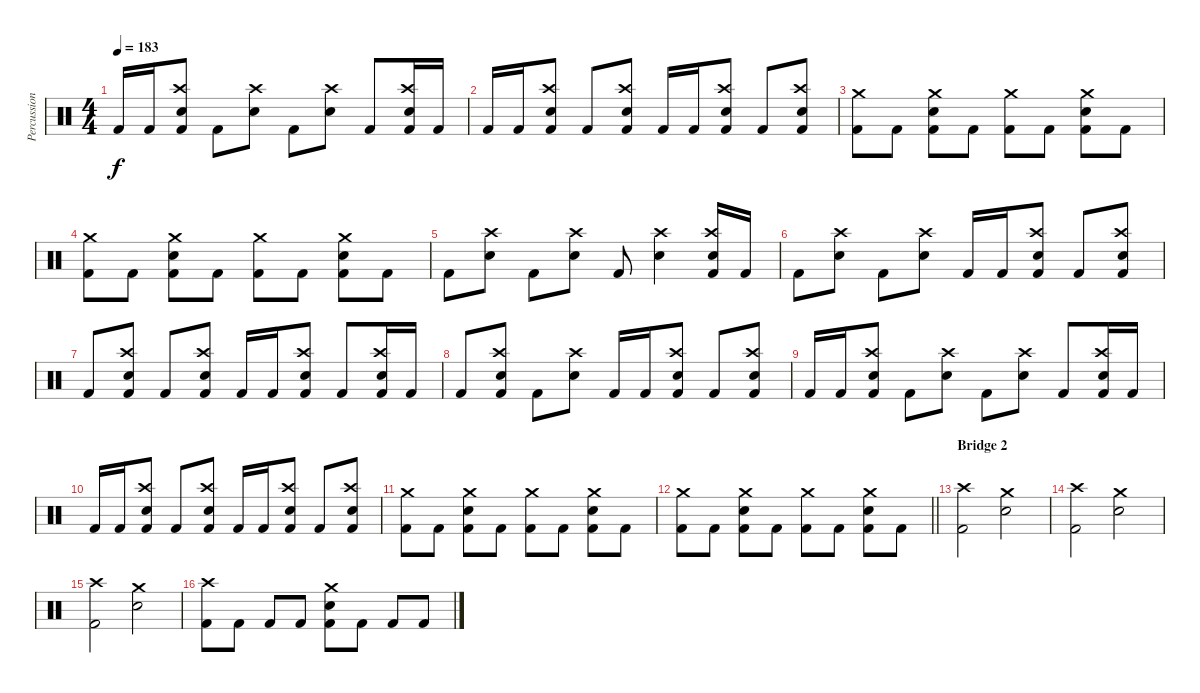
\track ("Percussion" "Percussion") {instrument percussion}
\staff {score}
\articulation defaults
\ts (4 4)
\tempo 183
\clef neutral
\ks aminor "Kick (hit) 2".16{dy f} "Kick (hit) 2".16
("Crash high (hit)" "Electric Snare (hit)" "Kick (hit) 2").8 "Kick (hit) 2".8 ("Crash high (hit)" "Electric Snare (hit)").8 "Kick (hit) 2".8 ("Crash high (hit)" "Electric Snare (hit)").8 "Kick (hit) 2".8 ("Crash high (hit)" "Electric Snare (hit)" "Kick (hit) 2").16 "Kick (hit) 2".16 |
"Kick (hit) 2".16 "Kick (hit) 2".16 ("Crash high (hit)" "Electric Snare (hit)" "Kick (hit) 2").8 "Kick (hit) 2".8 ("Crash high (hit)" "Electric Snare (hit)" "Kick (hit) 2").8 "Kick (hit) 2".16 "Kick (hit) 2".16 ("Crash high (hit)" "Electric Snare (hit)" "Kick (hit) 2").8 "Kick (hit) 2".8 ("Crash high (hit)" "Electric Snare (hit)" "Kick (hit) 2").8 |
("Crash medium (hit)" "Kick (hit) 2").8 "Kick (hit) 2".8 ("Crash medium (hit)" "Electric Snare (hit)" "Kick (hit) 2").8 "Kick (hit) 2".8 ("Crash medium (hit)" "Kick (hit) 2").8 "Kick (hit) 2".8 ("Crash medium (hit)" "Electric Snare (hit)" "Kick (hit) 2").8 "Kick (hit) 2".8 |
("Crash medium (hit)" "Kick (hit) 2").8 "Kick (hit) 2".8 ("Crash medium (hit)" "Electric Snare (hit)" "Kick (hit) 2").8 "Kick (hit) 2".8 ("Crash medium (hit)" "Kick (hit) 2").8 "Kick (hit) 2".8 ("Crash medium (hit)" "Electric Snare (hit)" "Kick (hit) 2").8 "Kick (hit) 2".8 |
"Kick (hit) 2".8 ("Crash high (hit)" "Electric Snare (hit)").8 "Kick (hit) 2".8 ("Crash high (hit)" "Electric Snare (hit)").8 "Kick (hit) 2".8 ("Crash high (hit)" "Electric Snare (hit)").4 ("Crash high (hit)" "Electric Snare (hit)" "Kick (hit) 2").16 "Kick (hit) 2".16 |
"Kick (hit) 2".8 ("Crash high (hit)" "Electric Snare (hit)").8 "Kick (hit) 2".8 ("Crash high (hit)" "Electric Snare (hit)").8 "Kick (hit) 2".16 "Kick (hit) 2".16 ("Crash high (hit)" "Electric Snare (hit)" "Kick (hit) 2").8 "Kick (hit) 2".8 ("Crash high (hit)" "Electric Snare (hit)" "Kick (hit) 2").8 |
"Kick (hit) 2".8 ("Crash high (hit)" "Electric Snare (hit)" "Kick (hit) 2").8 "Kick (hit) 2".8 ("Crash high (hit)" "Electric Snare (hit)" "Kick (hit) 2").8 "Kick (hit) 2".16 "Kick (hit) 2".16 ("Crash high (hit)" "Electric Snare (hit)" "Kick (hit) 2").8 "Kick (hit) 2".8 ("Crash high (hit)" "Electric Snare (hit)" "Kick (hit) 2").16 "Kick (hit) 2".16 |
"Kick (hit) 2".8 ("Crash high (hit)" "Electric Snare (hit)" "Kick (hit) 2").8 "Kick (hit) 2".8 ("Crash high (hit)" "Electric Snare (hit)").8 "Kick (hit) 2".16 "Kick (hit) 2".16 ("Crash high (hit)" "Electric Snare (hit)" "Kick (hit) 2").8 "Kick (hit) 2".8 ("Crash high (hit)" "Electric Snare (hit)" "Kick (hit) 2").8 |
"Kick (hit) 2".16 "Kick (hit) 2".16 ("Crash high (hit)" "Electric Snare (hit)" "Kick (hit) 2").8 "Kick (hit) 2".8 ("Crash high (hit)" "Electric Snare (hit)").8 "Kick (hit) 2".8 ("Crash high (hit)" "Electric Snare (hit)").8 "Kick (hit) 2".8 ("Crash high (hit)" "Electric Snare (hit)" "Kick (hit) 2").16 "Kick (hit) 2".16 |
"Kick (hit) 2".16 "Kick (hit) 2".16 ("Crash high (hit)" "Electric Snare (hit)" "Kick (hit) 2").8 "Kick (hit) 2".8 ("Crash high (hit)" "Electric Snare (hit)" "Kick (hit) 2").8 "Kick (hit) 2".16 "Kick (hit) 2".16 ("Crash high (hit)" "Electric Snare (hit)" "Kick (hit) 2").8 "Kick (hit) 2".8 ("Crash high (hit)" "Electric Snare (hit)" "Kick (hit) 2").8 |
("Crash medium (hit)" "Kick (hit) 2").8 "Kick (hit) 2".8 ("Crash medium (hit)" "Electric Snare (hit)" "Kick (hit) 2").8 "Kick (hit) 2".8 ("Crash medium (hit)" "Kick (hit) 2").8 "Kick (hit) 2".8 ("Crash medium (hit)" "Electric Snare (hit)" "Kick (hit) 2").8 "Kick (hit) 2".8 |
\barLineRight lightlight
("Crash medium (hit)" "Kick (hit) 2").8 "Kick (hit) 2".8 ("Crash medium (hit)" "Electric Snare (hit)" "Kick (hit) 2").8 "Kick (hit) 2".8 ("Crash medium (hit)" "Kick (hit) 2").8 "Kick (hit) 2".8 ("Crash medium (hit)" "Electric Snare (hit)" "Kick (hit) 2").8 "Kick (hit) 2".8 |
\section ("" "Bridge 2")
("Crash high (hit)" "Kick (hit) 2").2 ("Crash medium (hit)" "Electric Snare (hit)").2 |
("Crash high (hit)" "Kick (hit) 2").2 ("Crash medium (hit)" "Electric Snare (hit)").2 |
("Crash high (hit)" "Kick (hit) 2").2 ("Crash medium (hit)" "Electric Snare (hit)").2 |
("Crash high (hit)" "Kick (hit) 2").8 "Kick (hit) 2".8 "Kick (hit) 2".8 "Kick (hit) 2".8 ("Crash medium (hit)" "Electric Snare (hit)" "Kick (hit) 2").8 "Kick (hit) 2".8 "Kick (hit) 2".8 "Kick (hit) 2".8
